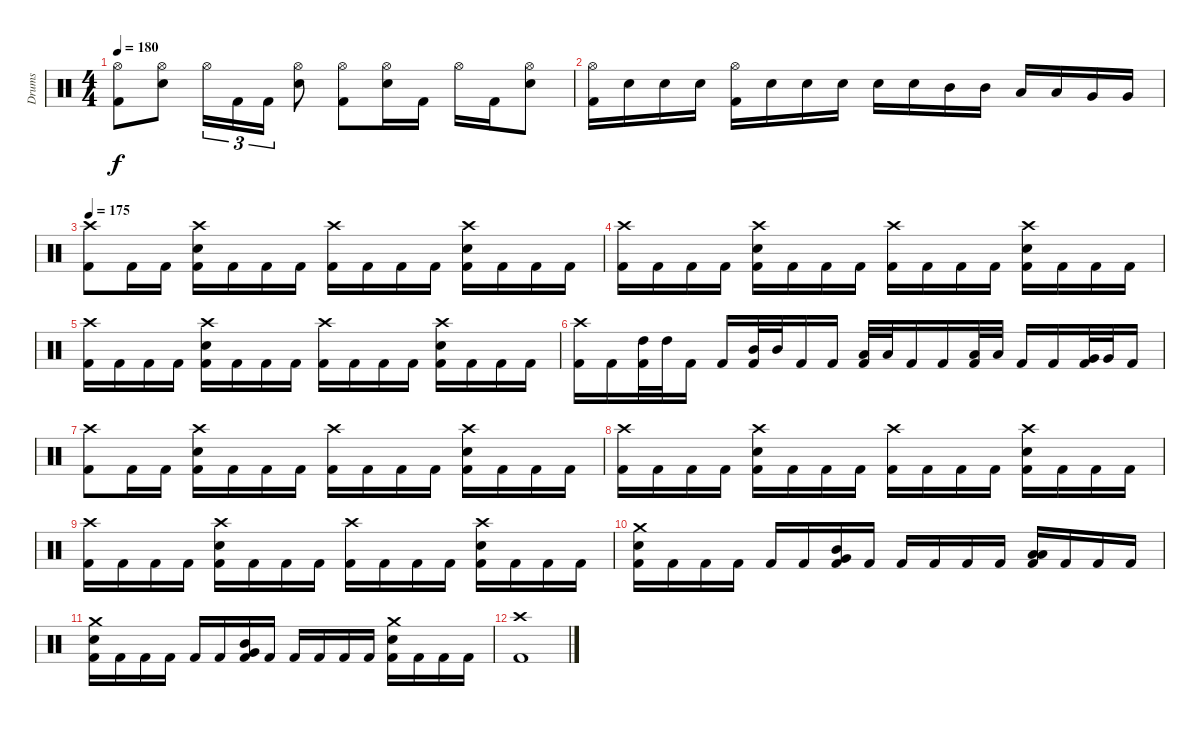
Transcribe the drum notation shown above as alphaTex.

\track ("Drums" "Drums") {instrument percussion}
\staff {score}
\articulation defaults
\ts (4 4)
\tempo 180
\clef neutral
\ks c
("Hi-Hat (open)" "Kick (hit) 2").8{dy f} ("Hi-Hat (open)" "Electric Snare (hit)").8 "Hi-Hat (open)".16{tu (3 2)} "Kick (hit) 2".16{tu (3 2)} "Kick (hit) 2".16{tu (3 2)} ("Hi-Hat (open)" "Electric Snare (hit)").8 ("Hi-Hat (open)" "Kick (hit) 2").8 ("Hi-Hat (open)" "Electric Snare (hit)").16 "Kick (hit) 2".16 "Hi-Hat (open)".16 "Kick (hit) 2".16 ("Hi-Hat (open)" "Electric Snare (hit)").8 |
("Hi-Hat (open)" "Kick (hit) 2").16 "Electric Snare (hit)".16 "Electric Snare (hit)".16 "Electric Snare (hit)".16 ("Hi-Hat (open)" "Kick (hit) 2").16 "Electric Snare (hit)".16 "Electric Snare (hit)".16 "Electric Snare (hit)".16 "Electric Snare (hit)".16 "Electric Snare (hit)".16 "Mid Tom (hit)".16 "Mid Tom (hit)".16 "Low Tom (hit)".16 "Low Tom (hit)".16 "Very Low Tom (hit)".16 "Very Low Tom (hit)".16 |
\tempo 175
("Crash high (hit)" "Kick (hit) 2").8 "Kick (hit) 2".16 "Kick (hit) 2".16 ("Crash high (hit)" "Electric Snare (hit)" "Kick (hit) 2").16 "Kick (hit) 2".16 "Kick (hit) 2".16 "Kick (hit) 2".16 ("Crash high (hit)" "Kick (hit) 2").16 "Kick (hit) 2".16 "Kick (hit) 2".16 "Kick (hit) 2".16 ("Crash high (hit)" "Electric Snare (hit)" "Kick (hit) 2").16 "Kick (hit) 2".16 "Kick (hit) 2".16 "Kick (hit) 2".16 |
("Crash high (hit)" "Kick (hit) 2").16 "Kick (hit) 2".16 "Kick (hit) 2".16 "Kick (hit) 2".16 ("Crash high (hit)" "Electric Snare (hit)" "Kick (hit) 2").16 "Kick (hit) 2".16 "Kick (hit) 2".16 "Kick (hit) 2".16 ("Crash high (hit)" "Kick (hit) 2").16 "Kick (hit) 2".16 "Kick (hit) 2".16 "Kick (hit) 2".16 ("Crash high (hit)" "Electric Snare (hit)" "Kick (hit) 2").16 "Kick (hit) 2".16 "Kick (hit) 2".16 "Kick (hit) 2".16 |
("Crash high (hit)" "Kick (hit) 2").16 "Kick (hit) 2".16 "Kick (hit) 2".16 "Kick (hit) 2".16 ("Crash high (hit)" "Electric Snare (hit)" "Kick (hit) 2").16 "Kick (hit) 2".16 "Kick (hit) 2".16 "Kick (hit) 2".16 ("Crash high (hit)" "Kick (hit) 2").16 "Kick (hit) 2".16 "Kick (hit) 2".16 "Kick (hit) 2".16 ("Crash high (hit)" "Electric Snare (hit)" "Kick (hit) 2").16 "Kick (hit) 2".16 "Kick (hit) 2".16 "Kick (hit) 2".16 |
("Crash high (hit)" "Kick (hit) 2").16 "Kick (hit) 2".16 ("High Tom (hit)" "Kick (hit) 2").32 "High Tom (hit)".32 "Kick (hit) 2".16 "Kick (hit) 2".16 ("Mid Tom (hit)" "Kick (hit) 2").32 "Mid Tom (hit)".32 "Kick (hit) 2".16 "Kick (hit) 2".16 ("Low Tom (hit)" "Kick (hit) 2").32 "Low Tom (hit)".32 "Kick (hit) 2".16 "Kick (hit) 2".16 ("Low Tom (hit)" "Kick (hit) 2").32 "Low Tom (hit)".32 "Kick (hit) 2".16 "Kick (hit) 2".16 ("Very Low Tom (hit)" "Kick (hit) 2").32 "Very Low Tom (hit)".32 "Kick (hit) 2".16 |
("Crash high (hit)" "Kick (hit) 2").8 "Kick (hit) 2".16 "Kick (hit) 2".16 ("Crash high (hit)" "Electric Snare (hit)" "Kick (hit) 2").16 "Kick (hit) 2".16 "Kick (hit) 2".16 "Kick (hit) 2".16 ("Crash high (hit)" "Kick (hit) 2").16 "Kick (hit) 2".16 "Kick (hit) 2".16 "Kick (hit) 2".16 ("Crash high (hit)" "Electric Snare (hit)" "Kick (hit) 2").16 "Kick (hit) 2".16 "Kick (hit) 2".16 "Kick (hit) 2".16 |
("Crash high (hit)" "Kick (hit) 2").16 "Kick (hit) 2".16 "Kick (hit) 2".16 "Kick (hit) 2".16 ("Crash high (hit)" "Electric Snare (hit)" "Kick (hit) 2").16 "Kick (hit) 2".16 "Kick (hit) 2".16 "Kick (hit) 2".16 ("Crash high (hit)" "Kick (hit) 2").16 "Kick (hit) 2".16 "Kick (hit) 2".16 "Kick (hit) 2".16 ("Crash high (hit)" "Electric Snare (hit)" "Kick (hit) 2").16 "Kick (hit) 2".16 "Kick (hit) 2".16 "Kick (hit) 2".16 |
("Crash high (hit)" "Kick (hit) 2").16 "Kick (hit) 2".16 "Kick (hit) 2".16 "Kick (hit) 2".16 ("Crash high (hit)" "Electric Snare (hit)" "Kick (hit) 2").16 "Kick (hit) 2".16 "Kick (hit) 2".16 "Kick (hit) 2".16 ("Crash high (hit)" "Kick (hit) 2").16 "Kick (hit) 2".16 "Kick (hit) 2".16 "Kick (hit) 2".16 ("Crash high (hit)" "Electric Snare (hit)" "Kick (hit) 2").16 "Kick (hit) 2".16 "Kick (hit) 2".16 "Kick (hit) 2".16 |
("Crash medium (hit)" "Electric Snare (hit)" "Kick (hit) 2").16 "Kick (hit) 2".16 "Kick (hit) 2".16 "Kick (hit) 2".16 "Kick (hit) 2".16 "Kick (hit) 2".16 ("Mid Tom (hit)" "Very Low Tom (hit)" "Kick (hit) 2").16 "Kick (hit) 2".16 "Kick (hit) 2".16 "Kick (hit) 2".16 "Kick (hit) 2".16 "Kick (hit) 2".16 ("Low Tom (hit)" "Low Floor Tom (hit)" "Kick (hit) 2").16 "Kick (hit) 2".16 "Kick (hit) 2".16 "Kick (hit) 2".16 |
("Crash medium (hit)" "Electric Snare (hit)" "Kick (hit) 2").16 "Kick (hit) 2".16 "Kick (hit) 2".16 "Kick (hit) 2".16 "Kick (hit) 2".16 "Kick (hit) 2".16 ("Mid Tom (hit)" "Very Low Tom (hit)" "Kick (hit) 2").16 "Kick (hit) 2".16 "Kick (hit) 2".16 "Kick (hit) 2".16 "Kick (hit) 2".16 "Kick (hit) 2".16 ("Crash medium (hit)" "Electric Snare (hit)" "Kick (hit) 2").16 "Kick (hit) 2".16 "Kick (hit) 2".16 "Kick (hit) 2".16 |
("Crash high (hit)" "Kick (hit) 2").1
